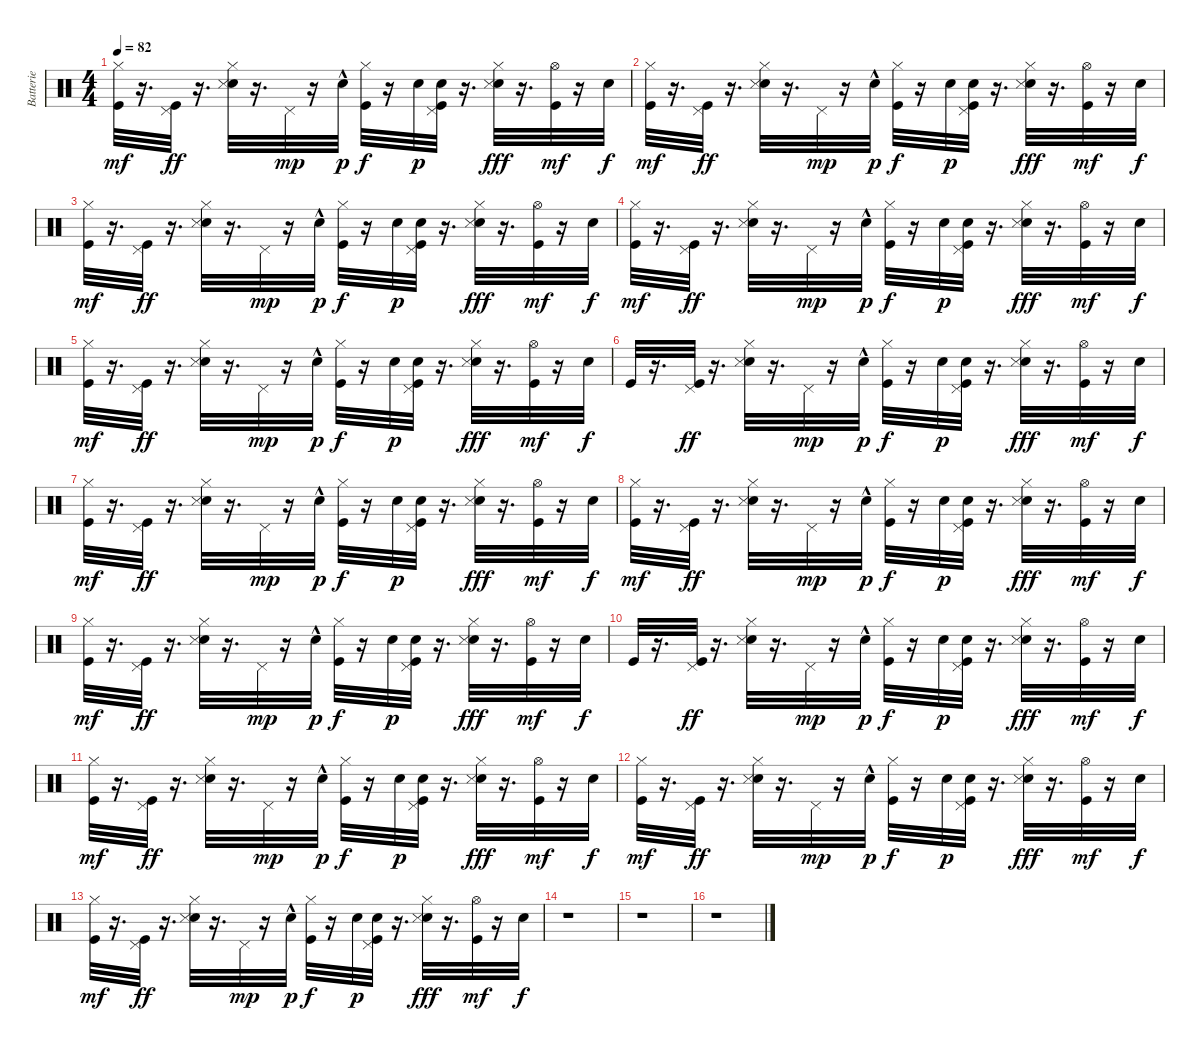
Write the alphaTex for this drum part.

\track ("Batterie" "Batterie") {instrument percussion}
\staff {score}
\articulation defaults
\ts (4 4)
\tempo 82
\clef neutral
\ks c
("Hi-Hat (closed)" "Kick (hit)").32{dy mf} r.16{d} ("Pedal Hi-Hat (hit)" "Kick (hit)").32{dy ff} r.16{d} ("Electric Snare (hit)" "Hi-Hat (closed)" "Snare (side stick) 3").32 r.16{d} "Pedal Hi-Hat (hit)".32{dy mp} r.16 "Electric Snare (hit)"{hac}.32{dy p} ("Hi-Hat (closed)" "Kick (hit)").32{dy f} r.16 "Electric Snare (hit)".32{dy p} ("Electric Snare (hit)" "Pedal Hi-Hat (hit)" "Kick (hit)").32 r.16{d} ("Electric Snare (hit)" "Hi-Hat (closed)" "Snare (side stick) 3").32{dy fff} r.16{d} ("Hi-Hat (open)" "Kick (hit)").32{dy mf} r.16 "Electric Snare (hit)".32{dy f} |
("Hi-Hat (closed)" "Kick (hit)").32{dy mf} r.16{d} ("Pedal Hi-Hat (hit)" "Kick (hit)").32{dy ff} r.16{d} ("Electric Snare (hit)" "Hi-Hat (closed)" "Snare (side stick) 3").32 r.16{d} "Pedal Hi-Hat (hit)".32{dy mp} r.16 "Electric Snare (hit)"{hac}.32{dy p} ("Hi-Hat (closed)" "Kick (hit)").32{dy f} r.16 "Electric Snare (hit)".32{dy p} ("Electric Snare (hit)" "Pedal Hi-Hat (hit)" "Kick (hit)").32 r.16{d} ("Electric Snare (hit)" "Hi-Hat (closed)" "Snare (side stick) 3").32{dy fff} r.16{d} ("Hi-Hat (open)" "Kick (hit)").32{dy mf} r.16 "Electric Snare (hit)".32{dy f} |
("Hi-Hat (closed)" "Kick (hit)").32{dy mf} r.16{d} ("Pedal Hi-Hat (hit)" "Kick (hit)").32{dy ff} r.16{d} ("Electric Snare (hit)" "Hi-Hat (closed)" "Snare (side stick) 3").32 r.16{d} "Pedal Hi-Hat (hit)".32{dy mp} r.16 "Electric Snare (hit)"{hac}.32{dy p} ("Hi-Hat (closed)" "Kick (hit)").32{dy f} r.16 "Electric Snare (hit)".32{dy p} ("Electric Snare (hit)" "Pedal Hi-Hat (hit)" "Kick (hit)").32 r.16{d} ("Electric Snare (hit)" "Hi-Hat (closed)" "Snare (side stick) 3").32{dy fff} r.16{d} ("Hi-Hat (open)" "Kick (hit)").32{dy mf} r.16 "Electric Snare (hit)".32{dy f} |
("Hi-Hat (closed)" "Kick (hit)").32{dy mf} r.16{d} ("Pedal Hi-Hat (hit)" "Kick (hit)").32{dy ff} r.16{d} ("Electric Snare (hit)" "Hi-Hat (closed)" "Snare (side stick) 3").32 r.16{d} "Pedal Hi-Hat (hit)".32{dy mp} r.16 "Electric Snare (hit)"{hac}.32{dy p} ("Hi-Hat (closed)" "Kick (hit)").32{dy f} r.16 "Electric Snare (hit)".32{dy p} ("Electric Snare (hit)" "Pedal Hi-Hat (hit)" "Kick (hit)").32 r.16{d} ("Electric Snare (hit)" "Hi-Hat (closed)" "Snare (side stick) 3").32{dy fff} r.16{d} ("Hi-Hat (open)" "Kick (hit)").32{dy mf} r.16 "Electric Snare (hit)".32{dy f} |
("Hi-Hat (closed)" "Kick (hit)").32{dy mf} r.16{d} ("Pedal Hi-Hat (hit)" "Kick (hit)").32{dy ff} r.16{d} ("Electric Snare (hit)" "Hi-Hat (closed)" "Snare (side stick) 3").32 r.16{d} "Pedal Hi-Hat (hit)".32{dy mp} r.16 "Electric Snare (hit)"{hac}.32{dy p} ("Hi-Hat (closed)" "Kick (hit)").32{dy f} r.16 "Electric Snare (hit)".32{dy p} ("Electric Snare (hit)" "Pedal Hi-Hat (hit)" "Kick (hit)").32 r.16{d} ("Electric Snare (hit)" "Hi-Hat (closed)" "Snare (side stick) 3").32{dy fff} r.16{d} ("Hi-Hat (open)" "Kick (hit)").32{dy mf} r.16 "Electric Snare (hit)".32{dy f} |
"Kick (hit)".32 r.16{d} ("Pedal Hi-Hat (hit)" "Kick (hit)").32{dy ff} r.16{d} ("Electric Snare (hit)" "Hi-Hat (closed)" "Snare (side stick) 3").32 r.16{d} "Pedal Hi-Hat (hit)".32{dy mp} r.16 "Electric Snare (hit)"{hac}.32{dy p} ("Hi-Hat (closed)" "Kick (hit)").32{dy f} r.16 "Electric Snare (hit)".32{dy p} ("Electric Snare (hit)" "Pedal Hi-Hat (hit)" "Kick (hit)").32 r.16{d} ("Electric Snare (hit)" "Hi-Hat (closed)" "Snare (side stick) 3").32{dy fff} r.16{d} ("Hi-Hat (open)" "Kick (hit)").32{dy mf} r.16 "Electric Snare (hit)".32{dy f} |
("Hi-Hat (closed)" "Kick (hit)").32{dy mf} r.16{d} ("Pedal Hi-Hat (hit)" "Kick (hit)").32{dy ff} r.16{d} ("Electric Snare (hit)" "Hi-Hat (closed)" "Snare (side stick) 3").32 r.16{d} "Pedal Hi-Hat (hit)".32{dy mp} r.16 "Electric Snare (hit)"{hac}.32{dy p} ("Hi-Hat (closed)" "Kick (hit)").32{dy f} r.16 "Electric Snare (hit)".32{dy p} ("Electric Snare (hit)" "Pedal Hi-Hat (hit)" "Kick (hit)").32 r.16{d} ("Electric Snare (hit)" "Hi-Hat (closed)" "Snare (side stick) 3").32{dy fff} r.16{d} ("Hi-Hat (open)" "Kick (hit)").32{dy mf} r.16 "Electric Snare (hit)".32{dy f} |
("Hi-Hat (closed)" "Kick (hit)").32{dy mf} r.16{d} ("Pedal Hi-Hat (hit)" "Kick (hit)").32{dy ff} r.16{d} ("Electric Snare (hit)" "Hi-Hat (closed)" "Snare (side stick) 3").32 r.16{d} "Pedal Hi-Hat (hit)".32{dy mp} r.16 "Electric Snare (hit)"{hac}.32{dy p} ("Hi-Hat (closed)" "Kick (hit)").32{dy f} r.16 "Electric Snare (hit)".32{dy p} ("Electric Snare (hit)" "Pedal Hi-Hat (hit)" "Kick (hit)").32 r.16{d} ("Electric Snare (hit)" "Hi-Hat (closed)" "Snare (side stick) 3").32{dy fff} r.16{d} ("Hi-Hat (open)" "Kick (hit)").32{dy mf} r.16 "Electric Snare (hit)".32{dy f} |
("Hi-Hat (closed)" "Kick (hit)").32{dy mf} r.16{d} ("Pedal Hi-Hat (hit)" "Kick (hit)").32{dy ff} r.16{d} ("Electric Snare (hit)" "Hi-Hat (closed)" "Snare (side stick) 3").32 r.16{d} "Pedal Hi-Hat (hit)".32{dy mp} r.16 "Electric Snare (hit)"{hac}.32{dy p} ("Hi-Hat (closed)" "Kick (hit)").32{dy f} r.16 "Electric Snare (hit)".32{dy p} ("Electric Snare (hit)" "Pedal Hi-Hat (hit)" "Kick (hit)").32 r.16{d} ("Electric Snare (hit)" "Hi-Hat (closed)" "Snare (side stick) 3").32{dy fff} r.16{d} ("Hi-Hat (open)" "Kick (hit)").32{dy mf} r.16 "Electric Snare (hit)".32{dy f} |
"Kick (hit)".32 r.16{d} ("Pedal Hi-Hat (hit)" "Kick (hit)").32{dy ff} r.16{d} ("Electric Snare (hit)" "Hi-Hat (closed)" "Snare (side stick) 3").32 r.16{d} "Pedal Hi-Hat (hit)".32{dy mp} r.16 "Electric Snare (hit)"{hac}.32{dy p} ("Hi-Hat (closed)" "Kick (hit)").32{dy f} r.16 "Electric Snare (hit)".32{dy p} ("Electric Snare (hit)" "Pedal Hi-Hat (hit)" "Kick (hit)").32 r.16{d} ("Electric Snare (hit)" "Hi-Hat (closed)" "Snare (side stick) 3").32{dy fff} r.16{d} ("Hi-Hat (open)" "Kick (hit)").32{dy mf} r.16 "Electric Snare (hit)".32{dy f} |
("Hi-Hat (closed)" "Kick (hit)").32{dy mf} r.16{d} ("Pedal Hi-Hat (hit)" "Kick (hit)").32{dy ff} r.16{d} ("Electric Snare (hit)" "Hi-Hat (closed)" "Snare (side stick) 3").32 r.16{d} "Pedal Hi-Hat (hit)".32{dy mp} r.16 "Electric Snare (hit)"{hac}.32{dy p} ("Hi-Hat (closed)" "Kick (hit)").32{dy f} r.16 "Electric Snare (hit)".32{dy p} ("Electric Snare (hit)" "Pedal Hi-Hat (hit)" "Kick (hit)").32 r.16{d} ("Electric Snare (hit)" "Hi-Hat (closed)" "Snare (side stick) 3").32{dy fff} r.16{d} ("Hi-Hat (open)" "Kick (hit)").32{dy mf} r.16 "Electric Snare (hit)".32{dy f} |
("Hi-Hat (closed)" "Kick (hit)").32{dy mf} r.16{d} ("Pedal Hi-Hat (hit)" "Kick (hit)").32{dy ff} r.16{d} ("Electric Snare (hit)" "Hi-Hat (closed)" "Snare (side stick) 3").32 r.16{d} "Pedal Hi-Hat (hit)".32{dy mp} r.16 "Electric Snare (hit)"{hac}.32{dy p} ("Hi-Hat (closed)" "Kick (hit)").32{dy f} r.16 "Electric Snare (hit)".32{dy p} ("Electric Snare (hit)" "Pedal Hi-Hat (hit)" "Kick (hit)").32 r.16{d} ("Electric Snare (hit)" "Hi-Hat (closed)" "Snare (side stick) 3").32{dy fff} r.16{d} ("Hi-Hat (open)" "Kick (hit)").32{dy mf} r.16 "Electric Snare (hit)".32{dy f} |
("Hi-Hat (closed)" "Kick (hit)").32{dy mf} r.16{d} ("Pedal Hi-Hat (hit)" "Kick (hit)").32{dy ff} r.16{d} ("Electric Snare (hit)" "Hi-Hat (closed)" "Snare (side stick) 3").32 r.16{d} "Pedal Hi-Hat (hit)".32{dy mp} r.16 "Electric Snare (hit)"{hac}.32{dy p} ("Hi-Hat (closed)" "Kick (hit)").32{dy f} r.16 "Electric Snare (hit)".32{dy p} ("Electric Snare (hit)" "Pedal Hi-Hat (hit)" "Kick (hit)").32 r.16{d} ("Electric Snare (hit)" "Hi-Hat (closed)" "Snare (side stick) 3").32{dy fff} r.16{d} ("Hi-Hat (open)" "Kick (hit)").32{dy mf} r.16 "Electric Snare (hit)".32{dy f} |
r.1 |
r.1 |
r.1
